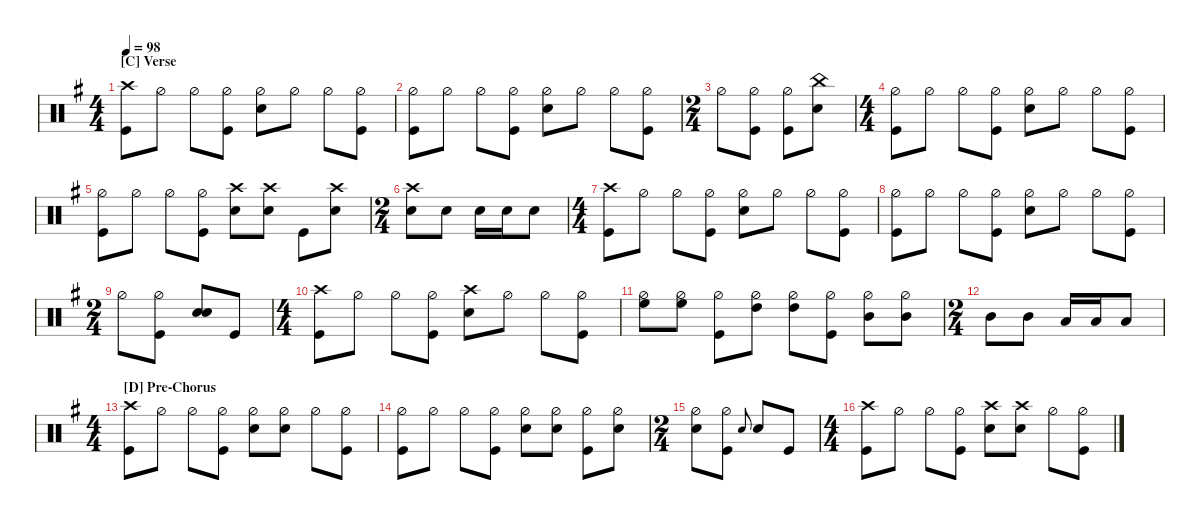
\defaultSystemsLayout 4
\hideDynamics
\bracketExtendMode nobrackets
\track ("Drums" " ") {instrument percussion}
\staff
\articulation defaults
\ts (4 4)
\beaming (8 2 2 2 2)
\section ("C" "Verse")
\tempo 98
\clef neutral
\ks eminor
("Kick (hit)"{acc forcenatural} "Crash high (hit)"{acc forcenatural}).8{dy f} "Hi-Hat (half)"{acc forcenatural}.8 "Hi-Hat (half)"{acc forcenatural}.8 ("Hi-Hat (half)"{acc forcenatural} "Kick (hit)"{acc forcenatural}).8 ("Hi-Hat (half)"{acc forcenatural} "Snare (hit) 2"{acc forcenatural}).8 "Hi-Hat (half)"{acc forcenatural}.8 "Hi-Hat (half)"{acc forcenatural}.8 ("Hi-Hat (half)"{acc forcenatural} "Kick (hit)"{acc forcenatural}).8 |
("Hi-Hat (half)"{acc forcenatural} "Kick (hit)"{acc forcenatural}).8 "Hi-Hat (half)"{acc forcenatural}.8 "Hi-Hat (half)"{acc forcenatural}.8 ("Hi-Hat (half)"{acc forcenatural} "Kick (hit)"{acc forcenatural}).8 ("Hi-Hat (half)"{acc forcenatural} "Snare (hit) 2"{acc forcenatural}).8 "Hi-Hat (half)"{acc forcenatural}.8 "Hi-Hat (half)"{acc forcenatural}.8 ("Hi-Hat (half)"{acc forcenatural} "Kick (hit)"{acc forcenatural}).8 |
\ts (2 4)
\beaming (8 2 2)
"Hi-Hat (half)"{acc forcenatural}.8 ("Hi-Hat (half)"{acc forcenatural} "Kick (hit)"{acc forcenatural}).8 ("Hi-Hat (half)"{acc forcenatural} "Kick (hit)"{acc forcenatural}).8 ("Snare (hit) 2"{acc forcenatural} "China (hit)"{acc forcenatural}).8 |
\ts (4 4)
\beaming (8 2 2 2 2)
("Kick (hit)"{acc forcenatural} "Hi-Hat (half)"{acc forcenatural}).8 "Hi-Hat (half)"{acc forcenatural}.8 "Hi-Hat (half)"{acc forcenatural}.8 ("Hi-Hat (half)"{acc forcenatural} "Kick (hit)"{acc forcenatural}).8 ("Hi-Hat (half)"{acc forcenatural} "Snare (hit) 2"{acc forcenatural}).8 "Hi-Hat (half)"{acc forcenatural}.8 "Hi-Hat (half)"{acc forcenatural}.8 ("Hi-Hat (half)"{acc forcenatural} "Kick (hit)"{acc forcenatural}).8 |
("Hi-Hat (half)"{acc forcenatural} "Kick (hit)"{acc forcenatural}).8 "Hi-Hat (half)"{acc forcenatural}.8 "Hi-Hat (half)"{acc forcenatural}.8 ("Hi-Hat (half)"{acc forcenatural} "Kick (hit)"{acc forcenatural}).8 ("Snare (hit) 2"{acc forcenatural} "Crash high (hit)"{acc forcenatural}).8 ("Snare (hit) 2"{acc forcenatural} "Crash high (hit)"{acc forcenatural}).8 "Kick (hit)"{acc forcenatural}.8 ("Snare (hit) 2"{acc forcenatural} "Crash high (hit)"{acc forcenatural}).8 |
\ts (2 4)
\beaming (8 2 2)
("Snare (hit) 2"{acc forcenatural} "Crash high (hit)"{acc forcenatural}).8 "Snare (hit) 2"{acc forcenatural}.8 "Snare (hit) 2"{acc forcenatural}.16 "Snare (hit) 2"{acc forcenatural}.16 "Snare (hit) 2"{acc forcenatural}.8 |
\ts (4 4)
\beaming (8 2 2 2 2)
("Kick (hit)"{acc forcenatural} "Crash high (hit)"{acc forcenatural}).8 "Hi-Hat (half)"{acc forcenatural}.8 "Hi-Hat (half)"{acc forcenatural}.8 ("Hi-Hat (half)"{acc forcenatural} "Kick (hit)"{acc forcenatural}).8 ("Hi-Hat (half)"{acc forcenatural} "Snare (hit) 2"{acc forcenatural}).8 "Hi-Hat (half)"{acc forcenatural}.8 "Hi-Hat (half)"{acc forcenatural}.8 ("Hi-Hat (half)"{acc forcenatural} "Kick (hit)"{acc forcenatural}).8 |
("Hi-Hat (half)"{acc forcenatural} "Kick (hit)"{acc forcenatural}).8 "Hi-Hat (half)"{acc forcenatural}.8 "Hi-Hat (half)"{acc forcenatural}.8 ("Hi-Hat (half)"{acc forcenatural} "Kick (hit)"{acc forcenatural}).8 ("Hi-Hat (half)"{acc forcenatural} "Snare (hit) 2"{acc forcenatural}).8 "Hi-Hat (half)"{acc forcenatural}.8 "Hi-Hat (half)"{acc forcenatural}.8 ("Hi-Hat (half)"{acc forcenatural} "Kick (hit)"{acc forcenatural}).8 |
\ts (2 4)
\beaming (8 2 2)
"Hi-Hat (half)"{acc forcenatural}.8 ("Hi-Hat (half)"{acc forcenatural} "Kick (hit)"{acc forcenatural}).8 ("Snare (hit) 2"{acc forcenatural} "Snare (hit) 2"{acc forcenatural}).8 "Kick (hit)"{acc forcenatural}.8 |
\ts (4 4)
\beaming (8 2 2 2 2)
("Kick (hit)"{acc forcenatural} "Crash high (hit)"{acc forcenatural}).8 "Hi-Hat (half)"{acc forcenatural}.8 "Hi-Hat (half)"{acc forcenatural}.8 ("Hi-Hat (half)"{acc forcenatural} "Kick (hit)"{acc forcenatural}).8 ("Snare (hit) 2"{acc forcenatural} "Crash high (hit)"{acc forcenatural}).8 "Hi-Hat (half)"{acc forcenatural}.8 "Hi-Hat (half)"{acc forcenatural}.8 ("Hi-Hat (half)"{acc forcenatural} "Kick (hit)"{acc forcenatural}).8 |
("Hi-Hat (half)"{acc forcenatural} "High Floor Tom (hit)"{acc forcenatural}).8{dy ff} ("Hi-Hat (half)"{acc forcenatural} "High Floor Tom (hit)"{acc forcenatural}).8 ("Hi-Hat (half)"{acc forcenatural} "Kick (hit)"{acc forcenatural}).8{dy f} ("Hi-Hat (half)"{acc forcenatural} "High Tom (hit)"{acc forcenatural}).8{dy ff} ("Hi-Hat (half)"{acc forcenatural} "High Tom (hit)"{acc forcenatural}).8 ("Hi-Hat (half)"{acc forcenatural} "Kick (hit)"{acc forcenatural}).8{dy f} ("Hi-Hat (half)"{acc forcenatural} "Mid Tom (hit)"{acc forcenatural}).8{dy ff} ("Hi-Hat (half)"{acc forcenatural} "Mid Tom (hit)"{acc forcenatural}).8 |
\ts (2 4)
\beaming (8 2 2)
"Mid Tom (hit)"{acc forcenatural}.8{dy fff} "Mid Tom (hit)"{acc forcenatural}.8 "Low Tom (hit)"{acc forcenatural}.16 "Low Tom (hit)"{acc forcenatural}.16 "Low Tom (hit)"{acc forcenatural}.8 |
\ts (4 4)
\beaming (8 2 2 2 2)
\section ("D" "Pre-Chorus")
("Kick (hit)"{acc forcenatural} "Crash high (hit)"{acc forcenatural}).8{dy f} "Hi-Hat (half)"{acc forcenatural}.8 "Hi-Hat (half)"{acc forcenatural}.8 ("Hi-Hat (half)"{acc forcenatural} "Kick (hit)"{acc forcenatural}).8 ("Hi-Hat (half)"{acc forcenatural} "Snare (hit) 2"{acc forcenatural}).8 ("Hi-Hat (half)"{acc forcenatural} "Snare (hit) 2"{acc forcenatural}).8 "Hi-Hat (half)"{acc forcenatural}.8 ("Hi-Hat (half)"{acc forcenatural} "Kick (hit)"{acc forcenatural}).8 |
("Hi-Hat (half)"{acc forcenatural} "Kick (hit)"{acc forcenatural}).8 "Hi-Hat (half)"{acc forcenatural}.8 "Hi-Hat (half)"{acc forcenatural}.8 ("Hi-Hat (half)"{acc forcenatural} "Kick (hit)"{acc forcenatural}).8 ("Hi-Hat (half)"{acc forcenatural} "Snare (hit) 2"{acc forcenatural}).8 ("Hi-Hat (half)"{acc forcenatural} "Snare (hit) 2"{acc forcenatural}).8 ("Hi-Hat (half)"{acc forcenatural} "Kick (hit)"{acc forcenatural}).8 ("Hi-Hat (half)"{acc forcenatural} "Snare (hit) 2"{acc forcenatural}).8 |
\ts (2 4)
\beaming (8 2 2)
("Hi-Hat (half)"{acc forcenatural} "Snare (hit) 2"{acc forcenatural}).8 ("Hi-Hat (half)"{acc forcenatural} "Kick (hit)"{acc forcenatural}).8 "Snare (hit) 2"{acc forcenatural}.8{gr onbeat} "Snare (hit) 2"{acc forcenatural}.8 "Kick (hit)"{acc forcenatural}.8 |
\ts (4 4)
\beaming (8 2 2 2 2)
("Kick (hit)"{acc forcenatural} "Crash high (hit)"{acc forcenatural}).8 "Hi-Hat (half)"{acc forcenatural}.8 "Hi-Hat (half)"{acc forcenatural}.8 ("Hi-Hat (half)"{acc forcenatural} "Kick (hit)"{acc forcenatural}).8 ("Snare (hit) 2"{acc forcenatural} "Crash high (hit)"{acc forcenatural}).8 ("Snare (hit) 2"{acc forcenatural} "Crash high (hit)"{acc forcenatural}).8 "Hi-Hat (half)"{acc forcenatural}.8 ("Hi-Hat (half)"{acc forcenatural} "Kick (hit)"{acc forcenatural}).8
